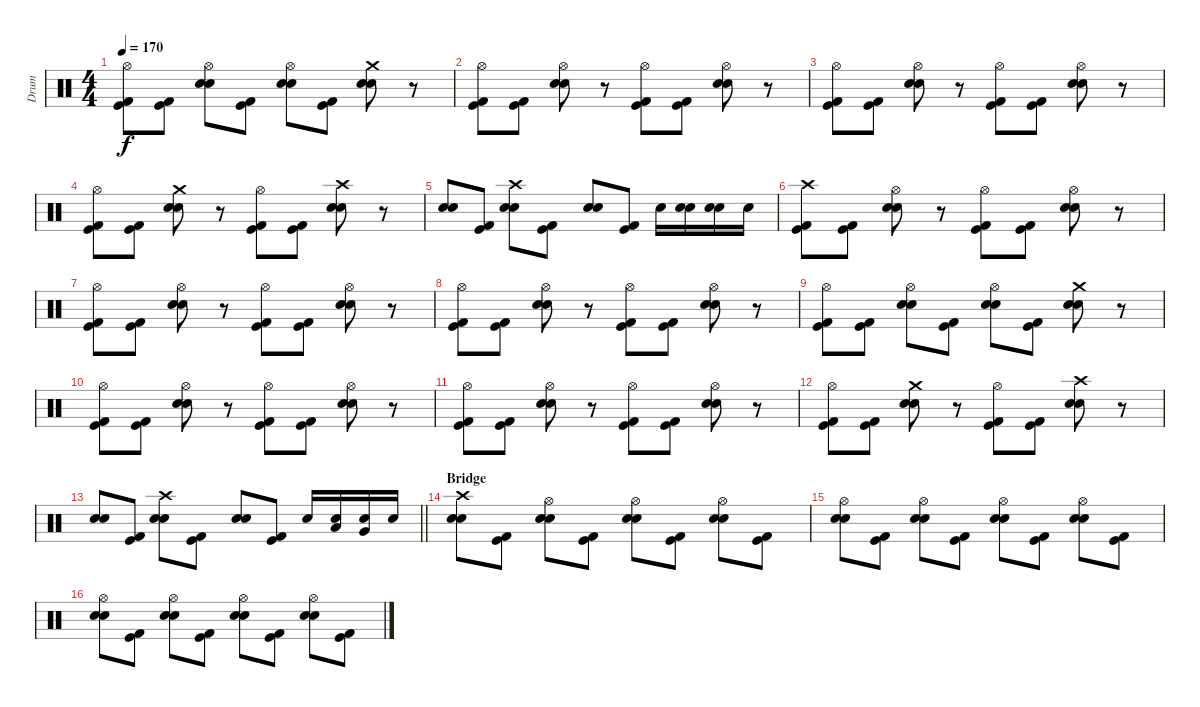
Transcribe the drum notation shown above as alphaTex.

\track ("Drum" "Drum") {instrument percussion}
\staff
\articulation defaults
\ts (4 4)
\tempo 170
\clef neutral
\ks c
("Hi-Hat (open)" "Kick (hit) 2" "Kick (hit)").8{dy f} ("Kick (hit) 2" "Kick (hit)").8 ("Hi-Hat (open)" "Electric Snare (hit)" "Snare (hit) 2").8 ("Kick (hit) 2" "Kick (hit)").8 ("Hi-Hat (open)" "Electric Snare (hit)" "Snare (hit) 2").8 ("Kick (hit) 2" "Kick (hit)").8 ("Crash medium (hit)" "Electric Snare (hit)" "Snare (hit) 2").8 r.8 |
("Hi-Hat (open)" "Kick (hit) 2" "Kick (hit)").8 ("Kick (hit) 2" "Kick (hit)").8 ("Hi-Hat (open)" "Electric Snare (hit)" "Snare (hit) 2").8 r.8 ("Hi-Hat (open)" "Kick (hit) 2" "Kick (hit)").8 ("Kick (hit) 2" "Kick (hit)").8 ("Hi-Hat (open)" "Electric Snare (hit)" "Snare (hit) 2").8 r.8 |
("Hi-Hat (open)" "Kick (hit) 2" "Kick (hit)").8 ("Kick (hit) 2" "Kick (hit)").8 ("Hi-Hat (open)" "Electric Snare (hit)" "Snare (hit) 2").8 r.8 ("Hi-Hat (open)" "Kick (hit) 2" "Kick (hit)").8 ("Kick (hit) 2" "Kick (hit)").8 ("Hi-Hat (open)" "Electric Snare (hit)" "Snare (hit) 2").8 r.8 |
("Hi-Hat (open)" "Kick (hit) 2" "Kick (hit)").8 ("Kick (hit) 2" "Kick (hit)").8 ("Crash medium (hit)" "Electric Snare (hit)" "Snare (hit) 2").8 r.8 ("Hi-Hat (open)" "Kick (hit) 2" "Kick (hit)").8 ("Kick (hit) 2" "Kick (hit)").8 ("Crash high (hit)" "Electric Snare (hit)" "Snare (hit) 2").8 r.8 |
("Electric Snare (hit)" "Snare (hit) 2").8 ("Kick (hit) 2" "Kick (hit)").8 ("Crash high (hit)" "Electric Snare (hit)" "Snare (hit) 2").8 ("Kick (hit) 2" "Kick (hit)").8 ("Electric Snare (hit)" "Snare (hit) 2").8 ("Kick (hit) 2" "Kick (hit)").8 "Electric Snare (hit)".16 ("Electric Snare (hit)" "Snare (hit) 2").16 ("Electric Snare (hit)" "Snare (hit) 2").16 "Electric Snare (hit)".16 |
("Crash high (hit)" "Kick (hit) 2" "Kick (hit)").8 ("Kick (hit) 2" "Kick (hit)").8 ("Hi-Hat (open)" "Electric Snare (hit)" "Snare (hit) 2").8 r.8 ("Hi-Hat (open)" "Kick (hit) 2" "Kick (hit)").8 ("Kick (hit) 2" "Kick (hit)").8 ("Hi-Hat (open)" "Electric Snare (hit)" "Snare (hit) 2").8 r.8 |
("Hi-Hat (open)" "Kick (hit) 2" "Kick (hit)").8 ("Kick (hit) 2" "Kick (hit)").8 ("Hi-Hat (open)" "Electric Snare (hit)" "Snare (hit) 2").8 r.8 ("Hi-Hat (open)" "Kick (hit) 2" "Kick (hit)").8 ("Kick (hit) 2" "Kick (hit)").8 ("Hi-Hat (open)" "Electric Snare (hit)" "Snare (hit) 2").8 r.8 |
("Hi-Hat (open)" "Kick (hit) 2" "Kick (hit)").8 ("Kick (hit) 2" "Kick (hit)").8 ("Hi-Hat (open)" "Electric Snare (hit)" "Snare (hit) 2").8 r.8 ("Hi-Hat (open)" "Kick (hit) 2" "Kick (hit)").8 ("Kick (hit) 2" "Kick (hit)").8 ("Hi-Hat (open)" "Electric Snare (hit)" "Snare (hit) 2").8 r.8 |
("Hi-Hat (open)" "Kick (hit) 2" "Kick (hit)").8 ("Kick (hit) 2" "Kick (hit)").8 ("Hi-Hat (open)" "Electric Snare (hit)" "Snare (hit) 2").8 ("Kick (hit) 2" "Kick (hit)").8 ("Hi-Hat (open)" "Electric Snare (hit)" "Snare (hit) 2").8 ("Kick (hit) 2" "Kick (hit)").8 ("Crash medium (hit)" "Electric Snare (hit)" "Snare (hit) 2").8 r.8 |
("Hi-Hat (open)" "Kick (hit) 2" "Kick (hit)").8 ("Kick (hit) 2" "Kick (hit)").8 ("Hi-Hat (open)" "Electric Snare (hit)" "Snare (hit) 2").8 r.8 ("Hi-Hat (open)" "Kick (hit) 2" "Kick (hit)").8 ("Kick (hit) 2" "Kick (hit)").8 ("Hi-Hat (open)" "Electric Snare (hit)" "Snare (hit) 2").8 r.8 |
("Hi-Hat (open)" "Kick (hit) 2" "Kick (hit)").8 ("Kick (hit) 2" "Kick (hit)").8 ("Hi-Hat (open)" "Electric Snare (hit)" "Snare (hit) 2").8 r.8 ("Hi-Hat (open)" "Kick (hit) 2" "Kick (hit)").8 ("Kick (hit) 2" "Kick (hit)").8 ("Hi-Hat (open)" "Electric Snare (hit)" "Snare (hit) 2").8 r.8 |
("Hi-Hat (open)" "Kick (hit) 2" "Kick (hit)").8 ("Kick (hit) 2" "Kick (hit)").8 ("Crash medium (hit)" "Electric Snare (hit)" "Snare (hit) 2").8 r.8 ("Hi-Hat (open)" "Kick (hit) 2" "Kick (hit)").8 ("Kick (hit) 2" "Kick (hit)").8 ("Crash high (hit)" "Electric Snare (hit)" "Snare (hit) 2").8 r.8 |
\barLineRight lightlight
("Electric Snare (hit)" "Snare (hit) 2").8 ("Kick (hit) 2" "Kick (hit)").8 ("Crash high (hit)" "Electric Snare (hit)" "Snare (hit) 2").8 ("Kick (hit) 2" "Kick (hit)").8 ("Electric Snare (hit)" "Snare (hit) 2").8 ("Kick (hit) 2" "Kick (hit)").8 "Electric Snare (hit)".16 ("Electric Snare (hit)" "Low Floor Tom (hit)").16 ("Electric Snare (hit)" "Very Low Tom (hit)").16 "Electric Snare (hit)".16 |
\section ("" "Bridge")
("Crash high (hit)" "Electric Snare (hit)" "Snare (hit) 2").8 ("Kick (hit) 2" "Kick (hit)").8 ("Hi-Hat (open)" "Electric Snare (hit)" "Snare (hit) 2").8 ("Kick (hit) 2" "Kick (hit)").8 ("Hi-Hat (open)" "Electric Snare (hit)" "Snare (hit) 2").8 ("Kick (hit) 2" "Kick (hit)").8 ("Hi-Hat (open)" "Electric Snare (hit)" "Snare (hit) 2").8 ("Kick (hit) 2" "Kick (hit)").8 |
("Hi-Hat (open)" "Electric Snare (hit)" "Snare (hit) 2").8 ("Kick (hit) 2" "Kick (hit)").8 ("Hi-Hat (open)" "Electric Snare (hit)" "Snare (hit) 2").8 ("Kick (hit) 2" "Kick (hit)").8 ("Hi-Hat (open)" "Electric Snare (hit)" "Snare (hit) 2").8 ("Kick (hit) 2" "Kick (hit)").8 ("Hi-Hat (open)" "Electric Snare (hit)" "Snare (hit) 2").8 ("Kick (hit) 2" "Kick (hit)").8 |
("Hi-Hat (open)" "Electric Snare (hit)" "Snare (hit) 2").8 ("Kick (hit) 2" "Kick (hit)").8 ("Hi-Hat (open)" "Electric Snare (hit)" "Snare (hit) 2").8 ("Kick (hit) 2" "Kick (hit)").8 ("Hi-Hat (open)" "Electric Snare (hit)" "Snare (hit) 2").8 ("Kick (hit) 2" "Kick (hit)").8 ("Hi-Hat (open)" "Electric Snare (hit)" "Snare (hit) 2").8 ("Kick (hit) 2" "Kick (hit)").8
